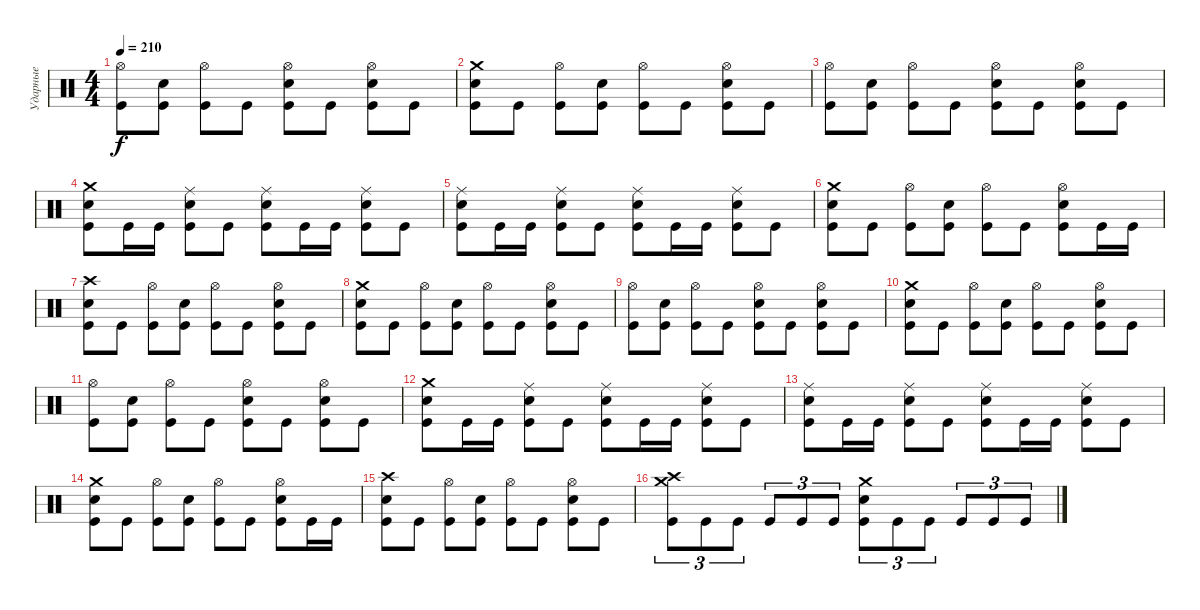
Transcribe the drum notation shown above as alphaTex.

\track ("Ударные" "Ударные") {instrument percussion}
\staff {score}
\articulation defaults
\ts (4 4)
\tempo 210
\clef neutral
\ks c
("Hi-Hat (open)" "Kick (hit)").8{dy f} ("Electric Snare (hit)" "Kick (hit)").8 ("Hi-Hat (open)" "Kick (hit)").8 "Kick (hit)".8 ("Hi-Hat (open)" "Electric Snare (hit)" "Kick (hit)").8 "Kick (hit)".8 ("Hi-Hat (open)" "Electric Snare (hit)" "Kick (hit)").8 "Kick (hit)".8 |
("Crash medium (hit)" "Electric Snare (hit)" "Kick (hit)").8 "Kick (hit)".8 ("Hi-Hat (open)" "Kick (hit)").8 ("Electric Snare (hit)" "Kick (hit)").8 ("Hi-Hat (open)" "Kick (hit)").8 "Kick (hit)".8 ("Hi-Hat (open)" "Electric Snare (hit)" "Kick (hit)").8 "Kick (hit)".8 |
("Hi-Hat (open)" "Kick (hit)").8 ("Electric Snare (hit)" "Kick (hit)").8 ("Hi-Hat (open)" "Kick (hit)").8 "Kick (hit)".8 ("Hi-Hat (open)" "Electric Snare (hit)" "Kick (hit)").8 "Kick (hit)".8 ("Hi-Hat (open)" "Electric Snare (hit)" "Kick (hit)").8 "Kick (hit)".8 |
("Crash medium (hit)" "Electric Snare (hit)" "Kick (hit)").8 "Kick (hit)".16 "Kick (hit)".16 ("Ride (middle)" "Electric Snare (hit)" "Kick (hit)").8 "Kick (hit)".8 ("Ride (middle)" "Electric Snare (hit)" "Kick (hit)").8 "Kick (hit)".16 "Kick (hit)".16 ("Ride (middle)" "Electric Snare (hit)" "Kick (hit)").8 "Kick (hit)".8 |
("Ride (middle)" "Electric Snare (hit)" "Kick (hit)").8 "Kick (hit)".16 "Kick (hit)".16 ("Ride (middle)" "Electric Snare (hit)" "Kick (hit)").8 "Kick (hit)".8 ("Ride (middle)" "Electric Snare (hit)" "Kick (hit)").8 "Kick (hit)".16 "Kick (hit)".16 ("Ride (middle)" "Electric Snare (hit)" "Kick (hit)").8 "Kick (hit)".8 |
("Crash medium (hit)" "Electric Snare (hit)" "Kick (hit)").8 "Kick (hit)".8 ("Hi-Hat (open)" "Kick (hit)").8 ("Electric Snare (hit)" "Kick (hit)").8 ("Hi-Hat (open)" "Kick (hit)").8 "Kick (hit)".8 ("Hi-Hat (open)" "Electric Snare (hit)" "Kick (hit)").8 "Kick (hit)".16 "Kick (hit)".16 |
("Crash high (hit)" "Electric Snare (hit)" "Kick (hit)").8 "Kick (hit)".8 ("Hi-Hat (open)" "Kick (hit)").8 ("Electric Snare (hit)" "Kick (hit)").8 ("Hi-Hat (open)" "Kick (hit)").8 "Kick (hit)".8 ("Hi-Hat (open)" "Electric Snare (hit)" "Kick (hit)").8 "Kick (hit)".8 |
("Crash medium (hit)" "Electric Snare (hit)" "Kick (hit)").8 "Kick (hit)".8 ("Hi-Hat (open)" "Kick (hit)").8 ("Electric Snare (hit)" "Kick (hit)").8 ("Hi-Hat (open)" "Kick (hit)").8 "Kick (hit)".8 ("Hi-Hat (open)" "Electric Snare (hit)" "Kick (hit)").8 "Kick (hit)".8 |
("Hi-Hat (open)" "Kick (hit)").8 ("Electric Snare (hit)" "Kick (hit)").8 ("Hi-Hat (open)" "Kick (hit)").8 "Kick (hit)".8 ("Hi-Hat (open)" "Electric Snare (hit)" "Kick (hit)").8 "Kick (hit)".8 ("Hi-Hat (open)" "Electric Snare (hit)" "Kick (hit)").8 "Kick (hit)".8 |
("Crash medium (hit)" "Electric Snare (hit)" "Kick (hit)").8 "Kick (hit)".8 ("Hi-Hat (open)" "Kick (hit)").8 ("Electric Snare (hit)" "Kick (hit)").8 ("Hi-Hat (open)" "Kick (hit)").8 "Kick (hit)".8 ("Hi-Hat (open)" "Electric Snare (hit)" "Kick (hit)").8 "Kick (hit)".8 |
("Hi-Hat (open)" "Kick (hit)").8 ("Electric Snare (hit)" "Kick (hit)").8 ("Hi-Hat (open)" "Kick (hit)").8 "Kick (hit)".8 ("Hi-Hat (open)" "Electric Snare (hit)" "Kick (hit)").8 "Kick (hit)".8 ("Hi-Hat (open)" "Electric Snare (hit)" "Kick (hit)").8 "Kick (hit)".8 |
("Crash medium (hit)" "Electric Snare (hit)" "Kick (hit)").8 "Kick (hit)".16 "Kick (hit)".16 ("Ride (middle)" "Electric Snare (hit)" "Kick (hit)").8 "Kick (hit)".8 ("Ride (middle)" "Electric Snare (hit)" "Kick (hit)").8 "Kick (hit)".16 "Kick (hit)".16 ("Ride (middle)" "Electric Snare (hit)" "Kick (hit)").8 "Kick (hit)".8 |
("Ride (middle)" "Electric Snare (hit)" "Kick (hit)").8 "Kick (hit)".16 "Kick (hit)".16 ("Ride (middle)" "Electric Snare (hit)" "Kick (hit)").8 "Kick (hit)".8 ("Ride (middle)" "Electric Snare (hit)" "Kick (hit)").8 "Kick (hit)".16 "Kick (hit)".16 ("Ride (middle)" "Electric Snare (hit)" "Kick (hit)").8 "Kick (hit)".8 |
("Crash medium (hit)" "Electric Snare (hit)" "Kick (hit)").8 "Kick (hit)".8 ("Hi-Hat (open)" "Kick (hit)").8 ("Electric Snare (hit)" "Kick (hit)").8 ("Hi-Hat (open)" "Kick (hit)").8 "Kick (hit)".8 ("Hi-Hat (open)" "Electric Snare (hit)" "Kick (hit)").8 "Kick (hit)".16 "Kick (hit)".16 |
("Crash high (hit)" "Electric Snare (hit)" "Kick (hit)").8 "Kick (hit)".8 ("Hi-Hat (open)" "Kick (hit)").8 ("Electric Snare (hit)" "Kick (hit)").8 ("Hi-Hat (open)" "Kick (hit)").8 "Kick (hit)".8 ("Hi-Hat (open)" "Electric Snare (hit)" "Kick (hit)").8 "Kick (hit)".8 |
("Crash high (hit)" "Crash medium (hit)" "Kick (hit)").8{tu (3 2)} "Kick (hit)".8{tu (3 2)} "Kick (hit)".8{tu (3 2)} "Kick (hit)".8{tu (3 2)} "Kick (hit)".8{tu (3 2)} "Kick (hit)".8{tu (3 2)} ("Crash medium (hit)" "Electric Snare (hit)" "Kick (hit)").8{tu (3 2)} "Kick (hit)".8{tu (3 2)} "Kick (hit)".8{tu (3 2)} "Kick (hit)".8{tu (3 2)} "Kick (hit)".8{tu (3 2)} "Kick (hit)".8{tu (3 2)}
